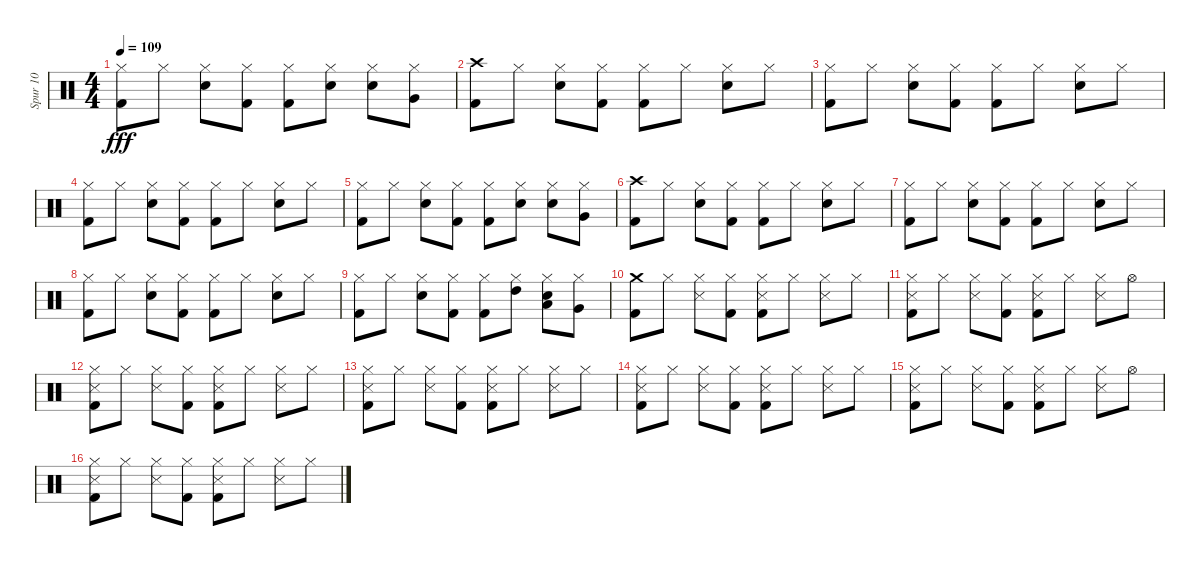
\track ("Spur 10" "Spur 10") {instrument percussion}
\staff {score}
\articulation defaults
\ts (4 4)
\tempo 109
\clef neutral
\ks c
("Kick (hit) 2" "Hi-Hat (closed)").8{dy fff} "Hi-Hat (closed)".8 ("Snare (hit) 2" "Hi-Hat (closed)").8 ("Kick (hit) 2" "Hi-Hat (closed)").8 ("Kick (hit) 2" "Hi-Hat (closed)").8 ("Snare (hit) 2" "Hi-Hat (closed)").8 ("Snare (hit) 2" "Hi-Hat (closed)").8 ("Very Low Tom (hit)" "Hi-Hat (closed)").8 |
("Kick (hit) 2" "Crash high (hit)").8 "Hi-Hat (closed)".8 ("Snare (hit) 2" "Hi-Hat (closed)").8 ("Kick (hit) 2" "Hi-Hat (closed)").8 ("Kick (hit) 2" "Hi-Hat (closed)").8 "Hi-Hat (closed)".8 ("Snare (hit) 2" "Hi-Hat (closed)").8 "Hi-Hat (closed)".8 |
("Kick (hit) 2" "Hi-Hat (closed)").8 "Hi-Hat (closed)".8 ("Snare (hit) 2" "Hi-Hat (closed)").8 ("Kick (hit) 2" "Hi-Hat (closed)").8 ("Kick (hit) 2" "Hi-Hat (closed)").8 "Hi-Hat (closed)".8 ("Snare (hit) 2" "Hi-Hat (closed)").8 "Hi-Hat (closed)".8 |
("Kick (hit) 2" "Hi-Hat (closed)").8 "Hi-Hat (closed)".8 ("Snare (hit) 2" "Hi-Hat (closed)").8 ("Kick (hit) 2" "Hi-Hat (closed)").8 ("Kick (hit) 2" "Hi-Hat (closed)").8 "Hi-Hat (closed)".8 ("Snare (hit) 2" "Hi-Hat (closed)").8 "Hi-Hat (closed)".8 |
("Kick (hit) 2" "Hi-Hat (closed)").8 "Hi-Hat (closed)".8 ("Snare (hit) 2" "Hi-Hat (closed)").8 ("Kick (hit) 2" "Hi-Hat (closed)").8 ("Kick (hit) 2" "Hi-Hat (closed)").8 ("Snare (hit) 2" "Hi-Hat (closed)").8 ("Snare (hit) 2" "Hi-Hat (closed)").8 ("Very Low Tom (hit)" "Hi-Hat (closed)").8 |
("Kick (hit) 2" "Crash high (hit)").8 "Hi-Hat (closed)".8 ("Snare (hit) 2" "Hi-Hat (closed)").8 ("Kick (hit) 2" "Hi-Hat (closed)").8 ("Kick (hit) 2" "Hi-Hat (closed)").8 "Hi-Hat (closed)".8 ("Snare (hit) 2" "Hi-Hat (closed)").8 "Hi-Hat (closed)".8 |
("Kick (hit) 2" "Hi-Hat (closed)").8 "Hi-Hat (closed)".8 ("Snare (hit) 2" "Hi-Hat (closed)").8 ("Kick (hit) 2" "Hi-Hat (closed)").8 ("Kick (hit) 2" "Hi-Hat (closed)").8 "Hi-Hat (closed)".8 ("Snare (hit) 2" "Hi-Hat (closed)").8 "Hi-Hat (closed)".8 |
("Kick (hit) 2" "Hi-Hat (closed)").8 "Hi-Hat (closed)".8 ("Snare (hit) 2" "Hi-Hat (closed)").8 ("Kick (hit) 2" "Hi-Hat (closed)").8 ("Kick (hit) 2" "Hi-Hat (closed)").8 "Hi-Hat (closed)".8 ("Snare (hit) 2" "Hi-Hat (closed)").8 "Hi-Hat (closed)".8 |
("Kick (hit) 2" "Hi-Hat (closed)").8 "Hi-Hat (closed)".8 ("Snare (hit) 2" "Hi-Hat (closed)").8 ("Kick (hit) 2" "Hi-Hat (closed)").8 ("Kick (hit) 2" "Hi-Hat (closed)").8 ("High Tom (hit)" "Hi-Hat (closed)").8 ("Snare (hit) 2" "Low Tom (hit)" "Hi-Hat (closed)").8 ("Very Low Tom (hit)" "Hi-Hat (closed)").8 |
("Kick (hit) 2" "Crash medium (hit)").8 "Hi-Hat (closed)".8 ("Snare (side stick) 3" "Hi-Hat (closed)").8 ("Kick (hit) 2" "Hi-Hat (closed)").8 ("Snare (side stick) 3" "Kick (hit) 2" "Hi-Hat (closed)").8 "Hi-Hat (closed)".8 ("Snare (side stick) 3" "Hi-Hat (closed)").8 "Hi-Hat (closed)".8 |
("Kick (hit) 2" "Snare (side stick) 3" "Hi-Hat (closed)").8 "Hi-Hat (closed)".8 ("Snare (side stick) 3" "Hi-Hat (closed)").8 ("Kick (hit) 2" "Hi-Hat (closed)").8 ("Snare (side stick) 3" "Kick (hit) 2" "Hi-Hat (closed)").8 "Hi-Hat (closed)".8 ("Snare (side stick) 3" "Hi-Hat (closed)").8 "Hi-Hat (open)".8 |
("Snare (side stick) 3" "Kick (hit) 2" "Hi-Hat (closed)").8 "Hi-Hat (closed)".8 ("Snare (side stick) 3" "Hi-Hat (closed)").8 ("Kick (hit) 2" "Hi-Hat (closed)").8 ("Kick (hit) 2" "Snare (side stick) 3" "Hi-Hat (closed)").8 "Hi-Hat (closed)".8 ("Snare (side stick) 3" "Hi-Hat (closed)").8 "Hi-Hat (closed)".8 |
("Snare (side stick) 3" "Kick (hit) 2" "Hi-Hat (closed)").8 "Hi-Hat (closed)".8 ("Snare (side stick) 3" "Hi-Hat (closed)").8 ("Kick (hit) 2" "Hi-Hat (closed)").8 ("Snare (side stick) 3" "Kick (hit) 2" "Hi-Hat (closed)").8 "Hi-Hat (closed)".8 ("Snare (side stick) 3" "Hi-Hat (closed)").8 "Hi-Hat (closed)".8 |
("Kick (hit) 2" "Snare (side stick) 3" "Hi-Hat (closed)").8 "Hi-Hat (closed)".8 ("Snare (side stick) 3" "Hi-Hat (closed)").8 ("Kick (hit) 2" "Hi-Hat (closed)").8 ("Snare (side stick) 3" "Kick (hit) 2" "Hi-Hat (closed)").8 "Hi-Hat (closed)".8 ("Snare (side stick) 3" "Hi-Hat (closed)").8 "Hi-Hat (closed)".8 |
("Snare (side stick) 3" "Kick (hit) 2" "Hi-Hat (closed)").8 "Hi-Hat (closed)".8 ("Snare (side stick) 3" "Hi-Hat (closed)").8 ("Kick (hit) 2" "Hi-Hat (closed)").8 ("Snare (side stick) 3" "Kick (hit) 2" "Hi-Hat (closed)").8 "Hi-Hat (closed)".8 ("Snare (side stick) 3" "Hi-Hat (closed)").8 "Hi-Hat (open)".8 |
("Kick (hit) 2" "Snare (side stick) 3" "Hi-Hat (closed)").8 "Hi-Hat (closed)".8 ("Snare (side stick) 3" "Hi-Hat (closed)").8 ("Kick (hit) 2" "Hi-Hat (closed)").8 ("Kick (hit) 2" "Snare (side stick) 3" "Hi-Hat (closed)").8 "Hi-Hat (closed)".8 ("Snare (side stick) 3" "Hi-Hat (closed)").8 "Hi-Hat (closed)".8
